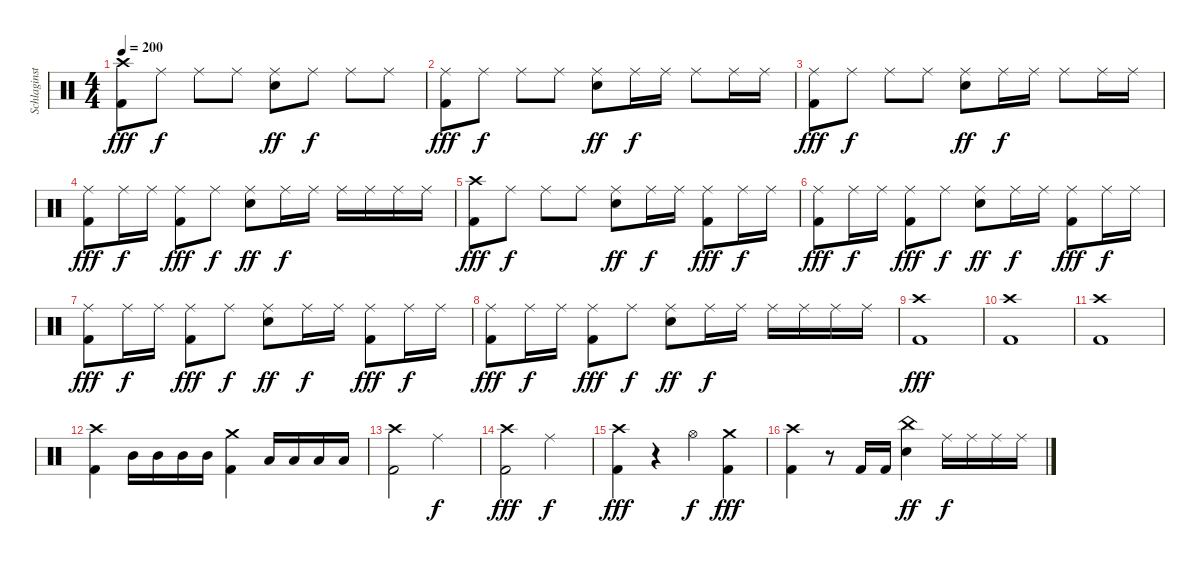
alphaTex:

\track ("Schlaginstrumente - Auswahl" "Schlaginst") {instrument percussion}
\staff {score}
\articulation defaults
\ts (4 4)
\tempo 200
\clef neutral
\ks c
("Crash high (hit)" "Kick (hit) 2").8{dy fff} "Ride (middle)".8{dy f} "Ride (middle)".8 "Ride (middle)".8 ("Ride (middle)" "Snare (hit) 2").8{dy ff} "Ride (middle)".8{dy f} "Ride (middle)".8 "Ride (middle)".8 |
("Ride (middle)" "Kick (hit) 2").8{dy fff} "Ride (middle)".8{dy f} "Ride (middle)".8 "Ride (middle)".8 ("Ride (middle)" "Snare (hit) 2").8{dy ff} "Ride (middle)".16{dy f} "Ride (middle)".16 "Ride (middle)".8 "Ride (middle)".16 "Ride (middle)".16 |
("Ride (middle)" "Kick (hit) 2").8{dy fff} "Ride (middle)".8{dy f} "Ride (middle)".8 "Ride (middle)".8 ("Ride (middle)" "Snare (hit) 2").8{dy ff} "Ride (middle)".16{dy f} "Ride (middle)".16 "Ride (middle)".8 "Ride (middle)".16 "Ride (middle)".16 |
("Ride (middle)" "Kick (hit) 2").8{dy fff} "Ride (middle)".16{dy f} "Ride (middle)".16 ("Ride (middle)" "Kick (hit) 2").8{dy fff} "Ride (middle)".8{dy f} ("Ride (middle)" "Snare (hit) 2").8{dy ff} "Ride (middle)".16{dy f} "Ride (middle)".16 "Ride (middle)".16 "Ride (middle)".16 "Ride (middle)".16 "Ride (middle)".16 |
("Crash high (hit)" "Kick (hit) 2").8{dy fff} "Ride (middle)".8{dy f} "Ride (middle)".8 "Ride (middle)".8 ("Ride (middle)" "Snare (hit) 2").8{dy ff} "Ride (middle)".16{dy f} "Ride (middle)".16 ("Ride (middle)" "Kick (hit) 2").8{dy fff} "Ride (middle)".16{dy f} "Ride (middle)".16 |
("Ride (middle)" "Kick (hit) 2").8{dy fff} "Ride (middle)".16{dy f} "Ride (middle)".16 ("Ride (middle)" "Kick (hit) 2").8{dy fff} "Ride (middle)".8{dy f} ("Ride (middle)" "Snare (hit) 2").8{dy ff} "Ride (middle)".16{dy f} "Ride (middle)".16 ("Ride (middle)" "Kick (hit) 2").8{dy fff} "Ride (middle)".16{dy f} "Ride (middle)".16 |
("Ride (middle)" "Kick (hit) 2").8{dy fff} "Ride (middle)".16{dy f} "Ride (middle)".16 ("Ride (middle)" "Kick (hit) 2").8{dy fff} "Ride (middle)".8{dy f} ("Ride (middle)" "Snare (hit) 2").8{dy ff} "Ride (middle)".16{dy f} "Ride (middle)".16 ("Ride (middle)" "Kick (hit) 2").8{dy fff} "Ride (middle)".16{dy f} "Ride (middle)".16 |
("Ride (middle)" "Kick (hit) 2").8{dy fff} "Ride (middle)".16{dy f} "Ride (middle)".16 ("Ride (middle)" "Kick (hit) 2").8{dy fff} "Ride (middle)".8{dy f} ("Ride (middle)" "Snare (hit) 2").8{dy ff} "Ride (middle)".16{dy f} "Ride (middle)".16 "Ride (middle)".16 "Ride (middle)".16 "Ride (middle)".16 "Ride (middle)".16 |
("Crash high (hit)" "Kick (hit) 2").1{dy fff} |
("Crash high (hit)" "Kick (hit) 2").1 |
("Crash high (hit)" "Kick (hit) 2").1 |
("Crash high (hit)" "Kick (hit) 2").4 "Mid Tom (hit)".16 "Mid Tom (hit)".16 "Mid Tom (hit)".16 "Mid Tom (hit)".16 ("Crash medium (hit)" "Kick (hit) 2").4 "Low Tom (hit)".16 "Low Tom (hit)".16 "Low Tom (hit)".16 "Low Tom (hit)".16 |
("Crash high (hit)" "Kick (hit) 2").2 "Ride (middle)".2{dy f} |
("Crash high (hit)" "Kick (hit) 2").2{dy fff} "Ride (middle)".2{dy f} |
("Crash high (hit)" "Kick (hit) 2").4{dy fff} r.4 "Hi-Hat (open)".4{dy f} ("Crash medium (hit)" "Kick (hit) 2").4{dy fff} |
("Crash high (hit)" "Kick (hit) 2").4 r.8 "Kick (hit) 2".16 "Kick (hit) 2".16 ("China (hit)" "Snare (hit) 2").4{dy ff} "Ride (middle)".16{dy f} "Ride (middle)".16 "Ride (middle)".16 "Ride (middle)".16
